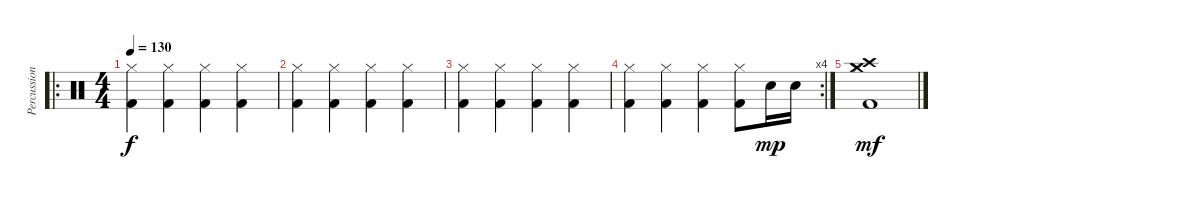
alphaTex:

\track ("Percussion" "Percussion") {instrument percussion}
\staff {score}
\articulation defaults
\ro
\ts (4 4)
\tempo 130
\clef neutral
\ks c
("Hi-Hat (closed)" "Kick (hit) 2").4{dy f} ("Hi-Hat (closed)" "Kick (hit) 2").4 ("Hi-Hat (closed)" "Kick (hit) 2").4 ("Hi-Hat (closed)" "Kick (hit) 2").4 |
("Hi-Hat (closed)" "Kick (hit) 2").4 ("Hi-Hat (closed)" "Kick (hit) 2").4 ("Hi-Hat (closed)" "Kick (hit) 2").4 ("Hi-Hat (closed)" "Kick (hit) 2").4 |
("Hi-Hat (closed)" "Kick (hit) 2").4 ("Hi-Hat (closed)" "Kick (hit) 2").4 ("Hi-Hat (closed)" "Kick (hit) 2").4 ("Hi-Hat (closed)" "Kick (hit) 2").4 |
\rc 4
("Hi-Hat (closed)" "Kick (hit) 2").4 ("Hi-Hat (closed)" "Kick (hit) 2").4 ("Hi-Hat (closed)" "Kick (hit) 2").4 ("Hi-Hat (closed)" "Kick (hit) 2").8 "Electric Snare (hit)".16{dy mp} "Electric Snare (hit)".16 |
("Crash medium (hit)" "Crash high (hit)" "Hi-Hat (closed)" "Kick (hit) 2").1{dy mf}
